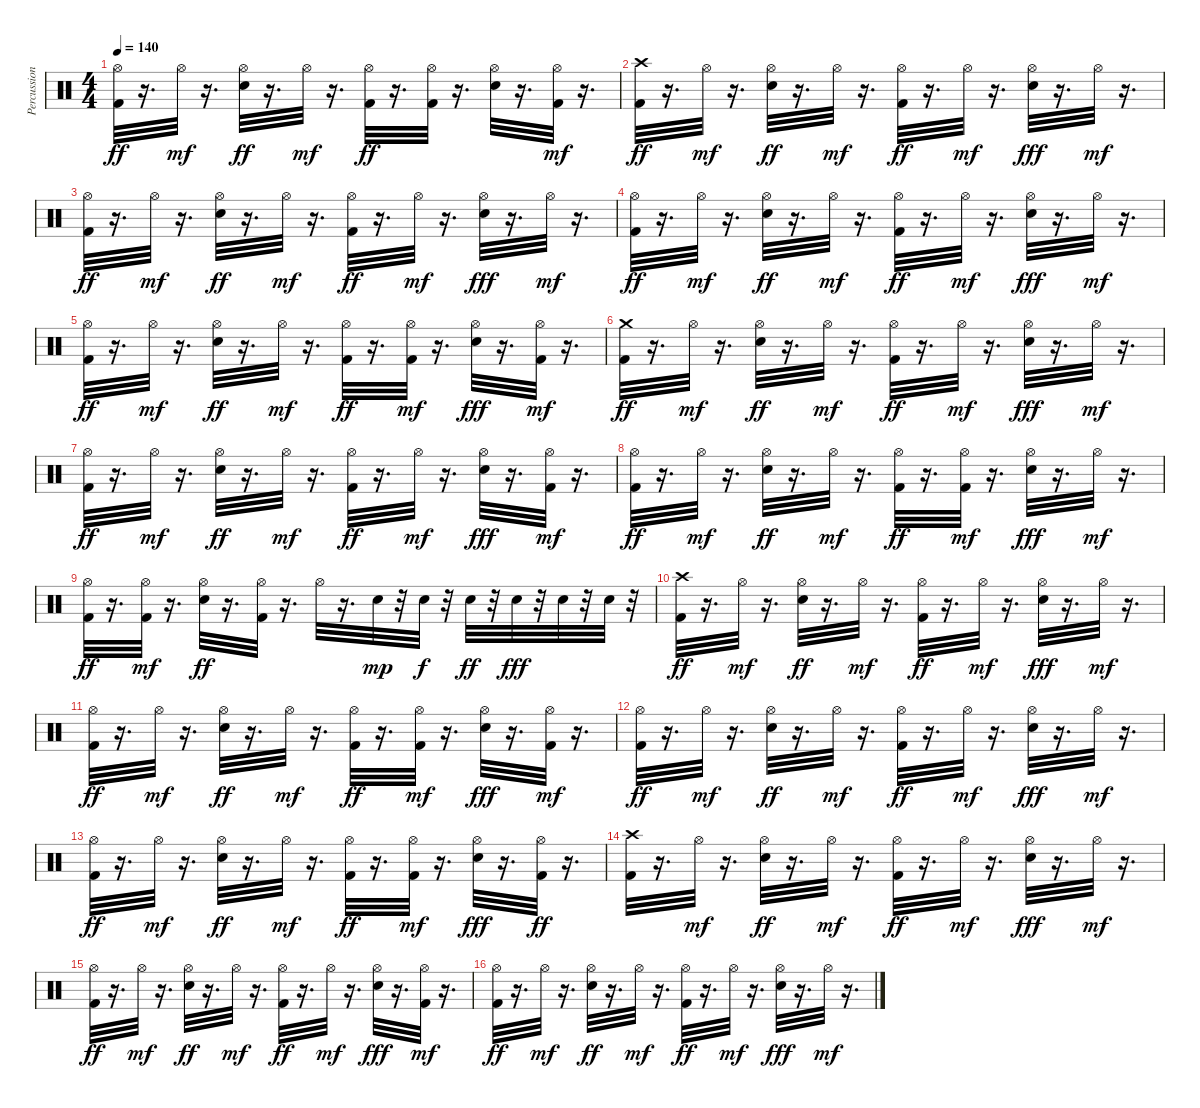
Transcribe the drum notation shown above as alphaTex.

\track ("Percussion" "Percussion") {instrument percussion}
\staff {score}
\articulation defaults
\ts (4 4)
\tempo 140
\clef neutral
\ks c
("Kick (hit) 2" "Hi-Hat (open)").32{dy ff} r.16{d} "Hi-Hat (open)".32{dy mf} r.16{d} ("Electric Snare (hit)" "Hi-Hat (open)").32{dy ff} r.16{d} "Hi-Hat (open)".32{dy mf} r.16{d} ("Kick (hit) 2" "Hi-Hat (open)").32{dy ff} r.16{d} ("Kick (hit) 2" "Hi-Hat (open)").32 r.16{d} ("Electric Snare (hit)" "Hi-Hat (open)").32 r.16{d} ("Kick (hit) 2" "Hi-Hat (open)").32{dy mf} r.16{d} |
("Kick (hit) 2" "Crash high (hit)").32{dy ff} r.16{d} "Hi-Hat (open)".32{dy mf} r.16{d} ("Electric Snare (hit)" "Hi-Hat (open)").32{dy ff} r.16{d} "Hi-Hat (open)".32{dy mf} r.16{d} ("Kick (hit) 2" "Hi-Hat (open)").32{dy ff} r.16{d} "Hi-Hat (open)".32{dy mf} r.16{d} ("Electric Snare (hit)" "Hi-Hat (open)").32{dy fff} r.16{d} "Hi-Hat (open)".32{dy mf} r.16{d} |
("Kick (hit) 2" "Hi-Hat (open)").32{dy ff} r.16{d} "Hi-Hat (open)".32{dy mf} r.16{d} ("Electric Snare (hit)" "Hi-Hat (open)").32{dy ff} r.16{d} "Hi-Hat (open)".32{dy mf} r.16{d} ("Kick (hit) 2" "Hi-Hat (open)").32{dy ff} r.16{d} "Hi-Hat (open)".32{dy mf} r.16{d} ("Electric Snare (hit)" "Hi-Hat (open)").32{dy fff} r.16{d} "Hi-Hat (open)".32{dy mf} r.16{d} |
("Kick (hit) 2" "Hi-Hat (open)").32{dy ff} r.16{d} "Hi-Hat (open)".32{dy mf} r.16{d} ("Electric Snare (hit)" "Hi-Hat (open)").32{dy ff} r.16{d} "Hi-Hat (open)".32{dy mf} r.16{d} ("Kick (hit) 2" "Hi-Hat (open)").32{dy ff} r.16{d} "Hi-Hat (open)".32{dy mf} r.16{d} ("Electric Snare (hit)" "Hi-Hat (open)").32{dy fff} r.16{d} "Hi-Hat (open)".32{dy mf} r.16{d} |
("Kick (hit) 2" "Hi-Hat (open)").32{dy ff} r.16{d} "Hi-Hat (open)".32{dy mf} r.16{d} ("Electric Snare (hit)" "Hi-Hat (open)").32{dy ff} r.16{d} "Hi-Hat (open)".32{dy mf} r.16{d} ("Kick (hit) 2" "Hi-Hat (open)").32{dy ff} r.16{d} ("Kick (hit) 2" "Hi-Hat (open)").32{dy mf} r.16{d} ("Electric Snare (hit)" "Hi-Hat (open)").32{dy fff} r.16{d} ("Kick (hit) 2" "Hi-Hat (open)").32{dy mf} r.16{d} |
("Kick (hit) 2" "Crash medium (hit)").32{dy ff} r.16{d} "Hi-Hat (open)".32{dy mf} r.16{d} ("Electric Snare (hit)" "Hi-Hat (open)").32{dy ff} r.16{d} "Hi-Hat (open)".32{dy mf} r.16{d} ("Hi-Hat (open)" "Kick (hit) 2").32{dy ff} r.16{d} "Hi-Hat (open)".32{dy mf} r.16{d} ("Electric Snare (hit)" "Hi-Hat (open)").32{dy fff} r.16{d} "Hi-Hat (open)".32{dy mf} r.16{d} |
("Kick (hit) 2" "Hi-Hat (open)").32{dy ff} r.16{d} "Hi-Hat (open)".32{dy mf} r.16{d} ("Electric Snare (hit)" "Hi-Hat (open)").32{dy ff} r.16{d} "Hi-Hat (open)".32{dy mf} r.16{d} ("Kick (hit) 2" "Hi-Hat (open)").32{dy ff} r.16{d} "Hi-Hat (open)".32{dy mf} r.16{d} ("Electric Snare (hit)" "Hi-Hat (open)").32{dy fff} r.16{d} ("Kick (hit) 2" "Hi-Hat (open)").32{dy mf} r.16{d} |
("Kick (hit) 2" "Hi-Hat (open)").32{dy ff} r.16{d} "Hi-Hat (open)".32{dy mf} r.16{d} ("Electric Snare (hit)" "Hi-Hat (open)").32{dy ff} r.16{d} "Hi-Hat (open)".32{dy mf} r.16{d} ("Kick (hit) 2" "Hi-Hat (open)").32{dy ff} r.16{d} ("Kick (hit) 2" "Hi-Hat (open)").32{dy mf} r.16{d} ("Electric Snare (hit)" "Hi-Hat (open)").32{dy fff} r.16{d} "Hi-Hat (open)".32{dy mf} r.16{d} |
("Kick (hit) 2" "Hi-Hat (open)").32{dy ff} r.16{d} ("Kick (hit) 2" "Hi-Hat (open)").32{dy mf} r.16{d} ("Electric Snare (hit)" "Hi-Hat (open)").32{dy ff} r.16{d} ("Kick (hit) 2" "Hi-Hat (open)").32 r.16{d} "Hi-Hat (open)".32 r.16{d} "Electric Snare (hit)".32{dy mp} r.32 "Electric Snare (hit)".32{dy f} r.32 "Electric Snare (hit)".32{dy ff} r.32 "Electric Snare (hit)".32{dy fff} r.32 "Electric Snare (hit)".32 r.32 "Electric Snare (hit)".32 r.32 |
("Kick (hit) 2" "Crash high (hit)").32{dy ff} r.16{d} "Hi-Hat (open)".32{dy mf} r.16{d} ("Electric Snare (hit)" "Hi-Hat (open)").32{dy ff} r.16{d} "Hi-Hat (open)".32{dy mf} r.16{d} ("Kick (hit) 2" "Hi-Hat (open)").32{dy ff} r.16{d} "Hi-Hat (open)".32{dy mf} r.16{d} ("Electric Snare (hit)" "Hi-Hat (open)").32{dy fff} r.16{d} "Hi-Hat (open)".32{dy mf} r.16{d} |
("Kick (hit) 2" "Hi-Hat (open)").32{dy ff} r.16{d} "Hi-Hat (open)".32{dy mf} r.16{d} ("Electric Snare (hit)" "Hi-Hat (open)").32{dy ff} r.16{d} "Hi-Hat (open)".32{dy mf} r.16{d} ("Kick (hit) 2" "Hi-Hat (open)").32{dy ff} r.16{d} ("Kick (hit) 2" "Hi-Hat (open)").32{dy mf} r.16{d} ("Electric Snare (hit)" "Hi-Hat (open)").32{dy fff} r.16{d} ("Kick (hit) 2" "Hi-Hat (open)").32{dy mf} r.16{d} |
("Kick (hit) 2" "Hi-Hat (open)").32{dy ff} r.16{d} "Hi-Hat (open)".32{dy mf} r.16{d} ("Electric Snare (hit)" "Hi-Hat (open)").32{dy ff} r.16{d} "Hi-Hat (open)".32{dy mf} r.16{d} ("Kick (hit) 2" "Hi-Hat (open)").32{dy ff} r.16{d} "Hi-Hat (open)".32{dy mf} r.16{d} ("Electric Snare (hit)" "Hi-Hat (open)").32{dy fff} r.16{d} "Hi-Hat (open)".32{dy mf} r.16{d} |
("Kick (hit) 2" "Hi-Hat (open)").32{dy ff} r.16{d} "Hi-Hat (open)".32{dy mf} r.16{d} ("Electric Snare (hit)" "Hi-Hat (open)").32{dy ff} r.16{d} "Hi-Hat (open)".32{dy mf} r.16{d} ("Kick (hit) 2" "Hi-Hat (open)").32{dy ff} r.16{d} ("Kick (hit) 2" "Hi-Hat (open)").32{dy mf} r.16{d} ("Electric Snare (hit)" "Hi-Hat (open)").32{dy fff} r.16{d} ("Hi-Hat (open)" "Kick (hit) 2").32{dy ff} r.16{d} |
("Kick (hit) 2" "Crash high (hit)").32 r.16{d} "Hi-Hat (open)".32{dy mf} r.16{d} ("Electric Snare (hit)" "Hi-Hat (open)").32{dy ff} r.16{d} "Hi-Hat (open)".32{dy mf} r.16{d} ("Hi-Hat (open)" "Kick (hit) 2").32{dy ff} r.16{d} "Hi-Hat (open)".32{dy mf} r.16{d} ("Electric Snare (hit)" "Hi-Hat (open)").32{dy fff} r.16{d} "Hi-Hat (open)".32{dy mf} r.16{d} |
("Kick (hit) 2" "Hi-Hat (open)").32{dy ff} r.16{d} "Hi-Hat (open)".32{dy mf} r.16{d} ("Electric Snare (hit)" "Hi-Hat (open)").32{dy ff} r.16{d} "Hi-Hat (open)".32{dy mf} r.16{d} ("Kick (hit) 2" "Hi-Hat (open)").32{dy ff} r.16{d} "Hi-Hat (open)".32{dy mf} r.16{d} ("Electric Snare (hit)" "Hi-Hat (open)").32{dy fff} r.16{d} ("Kick (hit) 2" "Hi-Hat (open)").32{dy mf} r.16{d} |
("Kick (hit) 2" "Hi-Hat (open)").32{dy ff} r.16{d} "Hi-Hat (open)".32{dy mf} r.16{d} ("Electric Snare (hit)" "Hi-Hat (open)").32{dy ff} r.16{d} "Hi-Hat (open)".32{dy mf} r.16{d} ("Kick (hit) 2" "Hi-Hat (open)").32{dy ff} r.16{d} "Hi-Hat (open)".32{dy mf} r.16{d} ("Electric Snare (hit)" "Hi-Hat (open)").32{dy fff} r.16{d} "Hi-Hat (open)".32{dy mf} r.16{d}
